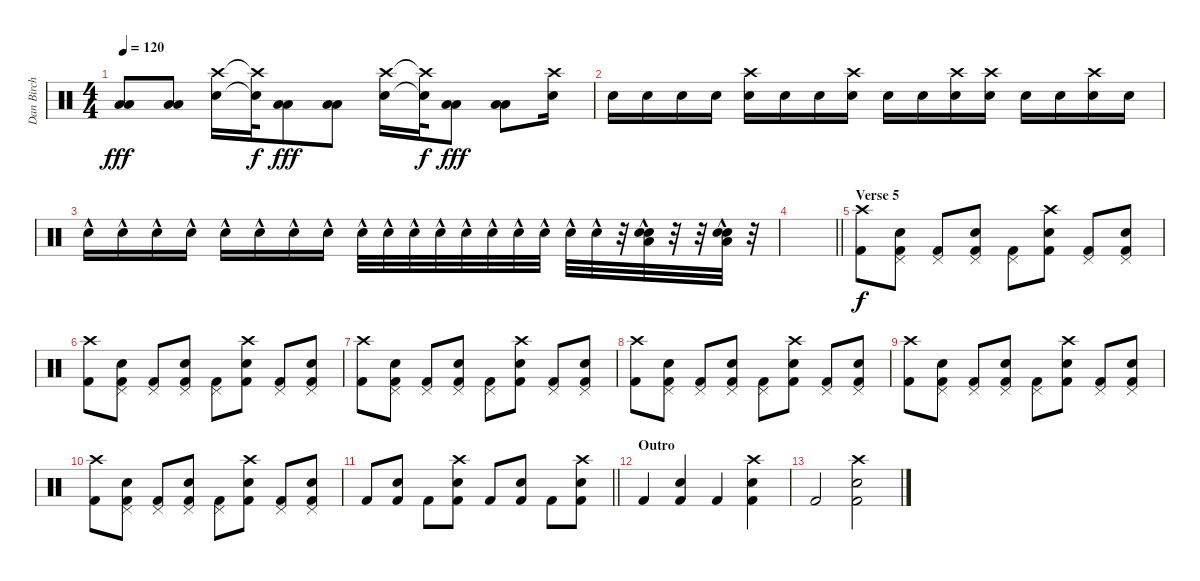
\track ("Dan Birch" "Dan Birch") {instrument percussion}
\staff {score}
\articulation defaults
\ts (4 4)
\tempo 120
\clef neutral
\ks c
("Low Tom (hit)" "Low Floor Tom (hit)").8{dy fff} ("Low Tom (hit)" "Low Floor Tom (hit)").8 ("Crash high (hit)" "Snare (hit) 2").16 ("Crash high (hit)"{t} "Snare (hit) 2"{t}).32{dy f} ("Low Tom (hit)" "Low Floor Tom (hit)").8{dy fff} ("Low Tom (hit)" "Low Floor Tom (hit)").8 ("Crash high (hit)" "Snare (hit) 2").16 ("Crash high (hit)"{t} "Snare (hit) 2"{t}).32{dy f} ("Low Tom (hit)" "Low Floor Tom (hit)").8{dy fff} ("Low Tom (hit)" "Low Floor Tom (hit)").8 ("Crash high (hit)" "Snare (hit) 2").16 |
"Snare (hit) 2".16 "Snare (hit) 2".16 "Snare (hit) 2".16 "Snare (hit) 2".16 ("Crash high (hit)" "Snare (hit) 2").16 "Snare (hit) 2".16 "Snare (hit) 2".16 ("Crash high (hit)" "Snare (hit) 2").16 "Snare (hit) 2".16 "Snare (hit) 2".16 ("Crash high (hit)" "Snare (hit) 2").16 ("Crash high (hit)" "Snare (hit) 2").16 "Snare (hit) 2".16 "Snare (hit) 2".16 ("Crash high (hit)" "Snare (hit) 2").16 "Snare (hit) 2".16 |
"Snare (hit) 2"{hac}.16 "Snare (hit) 2"{hac}.16 "Snare (hit) 2"{hac}.16 "Snare (hit) 2"{hac}.16 "Snare (hit) 2"{hac}.16 "Snare (hit) 2"{hac}.16 "Snare (hit) 2"{hac}.16 "Snare (hit) 2"{hac}.16 "Snare (hit) 2"{hac}.32 "Snare (hit) 2"{hac}.32 "Snare (hit) 2"{hac}.32 "Snare (hit) 2"{hac}.32 "Snare (hit) 2"{hac}.32 "Snare (hit) 2"{hac}.32 "Snare (hit) 2"{hac}.32 "Snare (hit) 2"{hac}.32 "Snare (hit) 2"{hac}.32 "Snare (hit) 2"{hac}.32 r.32 ("Snare (hit) 2" "Snare (hit) 2"{hac} "Low Floor Tom (hit)"{hac}).32 r.32 r.32 ("Snare (hit) 2" "Snare (hit) 2"{hac} "Low Floor Tom (hit)"{hac}).32 r.32 |
\barLineRight lightlight
|
\section ("" "Verse 5")
("Crash high (hit)" "Kick (hit) 2").8{dy f} ("Pedal Hi-Hat (hit)" "Snare (hit) 2" "Kick (hit) 2").8 ("Pedal Hi-Hat (hit)" "Kick (hit) 2").8 ("Pedal Hi-Hat (hit)" "Snare (hit) 2" "Kick (hit) 2").8 ("Pedal Hi-Hat (hit)" "Kick (hit) 2").8 ("Crash high (hit)" "Snare (hit) 2" "Kick (hit) 2").8 ("Pedal Hi-Hat (hit)" "Kick (hit) 2").8 ("Pedal Hi-Hat (hit)" "Snare (hit) 2" "Kick (hit) 2").8 |
("Crash high (hit)" "Kick (hit) 2").8 ("Pedal Hi-Hat (hit)" "Snare (hit) 2" "Kick (hit) 2").8 ("Pedal Hi-Hat (hit)" "Kick (hit) 2").8 ("Pedal Hi-Hat (hit)" "Snare (hit) 2" "Kick (hit) 2").8 ("Pedal Hi-Hat (hit)" "Kick (hit) 2").8 ("Crash high (hit)" "Snare (hit) 2" "Kick (hit) 2").8 ("Pedal Hi-Hat (hit)" "Kick (hit) 2").8 ("Pedal Hi-Hat (hit)" "Snare (hit) 2" "Kick (hit) 2").8 |
("Crash high (hit)" "Kick (hit) 2").8 ("Pedal Hi-Hat (hit)" "Snare (hit) 2" "Kick (hit) 2").8 ("Pedal Hi-Hat (hit)" "Kick (hit) 2").8 ("Pedal Hi-Hat (hit)" "Snare (hit) 2" "Kick (hit) 2").8 ("Pedal Hi-Hat (hit)" "Kick (hit) 2").8 ("Crash high (hit)" "Snare (hit) 2" "Kick (hit) 2").8 ("Pedal Hi-Hat (hit)" "Kick (hit) 2").8 ("Pedal Hi-Hat (hit)" "Snare (hit) 2" "Kick (hit) 2").8 |
("Crash high (hit)" "Kick (hit) 2").8 ("Pedal Hi-Hat (hit)" "Snare (hit) 2" "Kick (hit) 2").8 ("Pedal Hi-Hat (hit)" "Kick (hit) 2").8 ("Pedal Hi-Hat (hit)" "Snare (hit) 2" "Kick (hit) 2").8 ("Pedal Hi-Hat (hit)" "Kick (hit) 2").8 ("Crash high (hit)" "Snare (hit) 2" "Kick (hit) 2").8 ("Pedal Hi-Hat (hit)" "Kick (hit) 2").8 ("Pedal Hi-Hat (hit)" "Snare (hit) 2" "Kick (hit) 2").8 |
("Crash high (hit)" "Kick (hit) 2").8 ("Pedal Hi-Hat (hit)" "Snare (hit) 2" "Kick (hit) 2").8 ("Pedal Hi-Hat (hit)" "Kick (hit) 2").8 ("Pedal Hi-Hat (hit)" "Snare (hit) 2" "Kick (hit) 2").8 ("Pedal Hi-Hat (hit)" "Kick (hit) 2").8 ("Crash high (hit)" "Snare (hit) 2" "Kick (hit) 2").8 ("Pedal Hi-Hat (hit)" "Kick (hit) 2").8 ("Pedal Hi-Hat (hit)" "Snare (hit) 2" "Kick (hit) 2").8 |
("Crash high (hit)" "Kick (hit) 2").8 ("Pedal Hi-Hat (hit)" "Snare (hit) 2" "Kick (hit) 2").8 ("Pedal Hi-Hat (hit)" "Kick (hit) 2").8 ("Pedal Hi-Hat (hit)" "Snare (hit) 2" "Kick (hit) 2").8 ("Pedal Hi-Hat (hit)" "Kick (hit) 2").8 ("Crash high (hit)" "Snare (hit) 2" "Kick (hit) 2").8 ("Pedal Hi-Hat (hit)" "Kick (hit) 2").8 ("Pedal Hi-Hat (hit)" "Snare (hit) 2" "Kick (hit) 2").8 |
\barLineRight lightlight "Kick (hit) 2".8
("Snare (hit) 2" "Kick (hit) 2").8 "Kick (hit) 2".8 ("Crash high (hit)" "Snare (hit) 2" "Kick (hit) 2").8 "Kick (hit) 2".8 ("Snare (hit) 2" "Kick (hit) 2").8 "Kick (hit) 2".8 ("Crash high (hit)" "Snare (hit) 2" "Kick (hit) 2").8 |
\section ("" "Outro")
"Kick (hit) 2".4 ("Snare (hit) 2" "Kick (hit) 2").4 "Kick (hit) 2".4 ("Crash high (hit)" "Snare (hit) 2" "Kick (hit) 2").4 |
"Kick (hit) 2".2 ("Crash high (hit)" "Snare (hit) 2" "Kick (hit) 2").2
